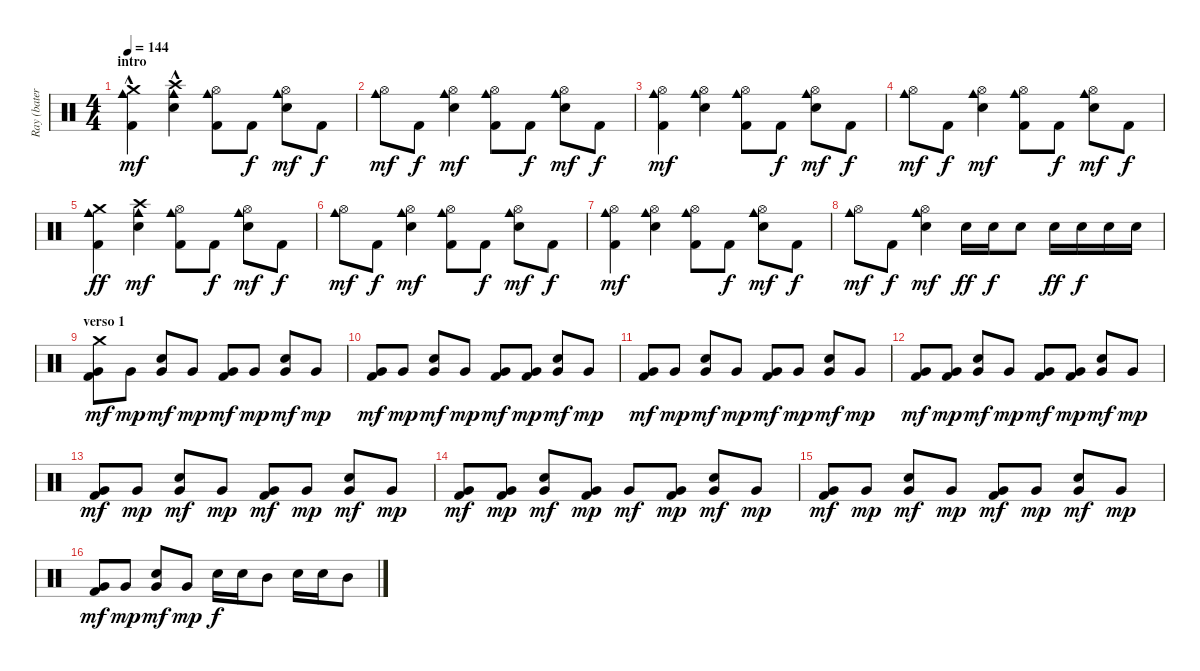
\track ("Ray (batería)" "Ray (bater") {instrument percussion}
\staff {score}
\articulation defaults
\ts (4 4)
\section ("" "intro")
\tempo 144
\clef neutral
\ks c
("Crash medium (hit)"{hac} "Cowbell medium (hit)" "Kick (hit) 2").4{dy mf} ("Crash high (hit)"{hac} "Cowbell medium (hit)" "Snare (hit) 2").4 ("Hi-Hat (open)" "Cowbell medium (hit)" "Kick (hit) 2").8 "Kick (hit) 2".8{dy f} ("Hi-Hat (open)" "Cowbell medium (hit)" "Snare (hit) 2").8{dy mf} "Kick (hit) 2".8{dy f} |
("Hi-Hat (open)" "Cowbell medium (hit)").8{dy mf} "Kick (hit) 2".8{dy f} ("Hi-Hat (open)" "Cowbell medium (hit)" "Snare (hit) 2").4{dy mf} ("Hi-Hat (open)" "Cowbell medium (hit)" "Kick (hit) 2").8 "Kick (hit) 2".8{dy f} ("Hi-Hat (open)" "Cowbell medium (hit)" "Snare (hit) 2").8{dy mf} "Kick (hit) 2".8{dy f} |
("Hi-Hat (open)" "Cowbell medium (hit)" "Kick (hit) 2").4{dy mf} ("Hi-Hat (open)" "Cowbell medium (hit)" "Snare (hit) 2").4 ("Hi-Hat (open)" "Cowbell medium (hit)" "Kick (hit) 2").8 "Kick (hit) 2".8{dy f} ("Hi-Hat (open)" "Cowbell medium (hit)" "Snare (hit) 2").8{dy mf} "Kick (hit) 2".8{dy f} |
("Hi-Hat (open)" "Cowbell medium (hit)").8{dy mf} "Kick (hit) 2".8{dy f} ("Hi-Hat (open)" "Cowbell medium (hit)" "Snare (hit) 2").4{dy mf} ("Hi-Hat (open)" "Cowbell medium (hit)" "Kick (hit) 2").8 "Kick (hit) 2".8{dy f} ("Hi-Hat (open)" "Cowbell medium (hit)" "Snare (hit) 2").8{dy mf} "Kick (hit) 2".8{dy f} |
("Crash medium (hit)" "Cowbell medium (hit)" "Kick (hit) 2").4{dy ff} ("Crash high (hit)" "Cowbell medium (hit)" "Snare (hit) 2").4{dy mf} ("Hi-Hat (open)" "Cowbell medium (hit)" "Kick (hit) 2").8 "Kick (hit) 2".8{dy f} ("Hi-Hat (open)" "Cowbell medium (hit)" "Snare (hit) 2").8{dy mf} "Kick (hit) 2".8{dy f} |
("Hi-Hat (open)" "Cowbell medium (hit)").8{dy mf} "Kick (hit) 2".8{dy f} ("Hi-Hat (open)" "Cowbell medium (hit)" "Snare (hit) 2").4{dy mf} ("Hi-Hat (open)" "Cowbell medium (hit)" "Kick (hit) 2").8 "Kick (hit) 2".8{dy f} ("Hi-Hat (open)" "Cowbell medium (hit)" "Snare (hit) 2").8{dy mf} "Kick (hit) 2".8{dy f} |
("Hi-Hat (open)" "Cowbell medium (hit)" "Kick (hit) 2").4{dy mf} ("Hi-Hat (open)" "Cowbell medium (hit)" "Snare (hit) 2").4 ("Hi-Hat (open)" "Cowbell medium (hit)" "Kick (hit) 2").8 "Kick (hit) 2".8{dy f} ("Hi-Hat (open)" "Cowbell medium (hit)" "Snare (hit) 2").8{dy mf} "Kick (hit) 2".8{dy f} |
("Hi-Hat (open)" "Cowbell medium (hit)").8{dy mf} "Kick (hit) 2".8{dy f} ("Hi-Hat (open)" "Cowbell medium (hit)" "Snare (hit) 2").4{dy mf} "Snare (hit) 2".16{dy ff} "Snare (hit) 2".16{dy f} "Snare (hit) 2".8 "Snare (hit) 2".16{dy ff} "Snare (hit) 2".16{dy f} "Snare (hit) 2".16 "Snare (hit) 2".16 |
\section ("" "verso 1")
("Crash medium (hit)" "Very Low Tom (hit)" "Kick (hit) 2").8{dy mf} "Very Low Tom (hit)".8{dy mp} ("Snare (hit) 2" "Very Low Tom (hit)").8{dy mf} "Very Low Tom (hit)".8{dy mp} ("Very Low Tom (hit)" "Kick (hit) 2").8{dy mf} "Very Low Tom (hit)".8{dy mp} ("Snare (hit) 2" "Very Low Tom (hit)").8{dy mf} "Very Low Tom (hit)".8{dy mp} |
("Very Low Tom (hit)" "Kick (hit) 2").8{dy mf} "Very Low Tom (hit)".8{dy mp} ("Snare (hit) 2" "Very Low Tom (hit)").8{dy mf} "Very Low Tom (hit)".8{dy mp} ("Very Low Tom (hit)" "Kick (hit) 2").8{dy mf} ("Very Low Tom (hit)" "Kick (hit) 2").8{dy mp} ("Snare (hit) 2" "Very Low Tom (hit)").8{dy mf} "Very Low Tom (hit)".8{dy mp} |
("Very Low Tom (hit)" "Kick (hit) 2").8{dy mf} "Very Low Tom (hit)".8{dy mp} ("Snare (hit) 2" "Very Low Tom (hit)").8{dy mf} "Very Low Tom (hit)".8{dy mp} ("Very Low Tom (hit)" "Kick (hit) 2").8{dy mf} "Very Low Tom (hit)".8{dy mp} ("Snare (hit) 2" "Very Low Tom (hit)").8{dy mf} "Very Low Tom (hit)".8{dy mp} |
("Very Low Tom (hit)" "Kick (hit) 2").8{dy mf} ("Very Low Tom (hit)" "Kick (hit) 2").8{dy mp} ("Snare (hit) 2" "Very Low Tom (hit)").8{dy mf} "Very Low Tom (hit)".8{dy mp} ("Very Low Tom (hit)" "Kick (hit) 2").8{dy mf} ("Very Low Tom (hit)" "Kick (hit) 2").8{dy mp} ("Snare (hit) 2" "Very Low Tom (hit)").8{dy mf} "Very Low Tom (hit)".8{dy mp} |
("Very Low Tom (hit)" "Kick (hit) 2").8{dy mf} "Very Low Tom (hit)".8{dy mp} ("Snare (hit) 2" "Very Low Tom (hit)").8{dy mf} "Very Low Tom (hit)".8{dy mp} ("Very Low Tom (hit)" "Kick (hit) 2").8{dy mf} "Very Low Tom (hit)".8{dy mp} ("Snare (hit) 2" "Very Low Tom (hit)").8{dy mf} "Very Low Tom (hit)".8{dy mp} |
("Very Low Tom (hit)" "Kick (hit) 2").8{dy mf} ("Very Low Tom (hit)" "Kick (hit) 2").8{dy mp} ("Snare (hit) 2" "Very Low Tom (hit)").8{dy mf} ("Very Low Tom (hit)" "Kick (hit) 2").8{dy mp} "Very Low Tom (hit)".8{dy mf} ("Very Low Tom (hit)" "Kick (hit) 2").8{dy mp} ("Snare (hit) 2" "Very Low Tom (hit)").8{dy mf} "Very Low Tom (hit)".8{dy mp} |
("Very Low Tom (hit)" "Kick (hit) 2").8{dy mf} "Very Low Tom (hit)".8{dy mp} ("Snare (hit) 2" "Very Low Tom (hit)").8{dy mf} "Very Low Tom (hit)".8{dy mp} ("Very Low Tom (hit)" "Kick (hit) 2").8{dy mf} "Very Low Tom (hit)".8{dy mp} ("Snare (hit) 2" "Very Low Tom (hit)").8{dy mf} "Very Low Tom (hit)".8{dy mp} |
("Very Low Tom (hit)" "Kick (hit) 2").8{dy mf} "Very Low Tom (hit)".8{dy mp} ("Snare (hit) 2" "Very Low Tom (hit)").8{dy mf} "Very Low Tom (hit)".8{dy mp} "Snare (hit) 2".16{dy f} "Snare (hit) 2".16 "Mid Tom (hit)".8 "Snare (hit) 2".16 "Snare (hit) 2".16 "Mid Tom (hit)".8
